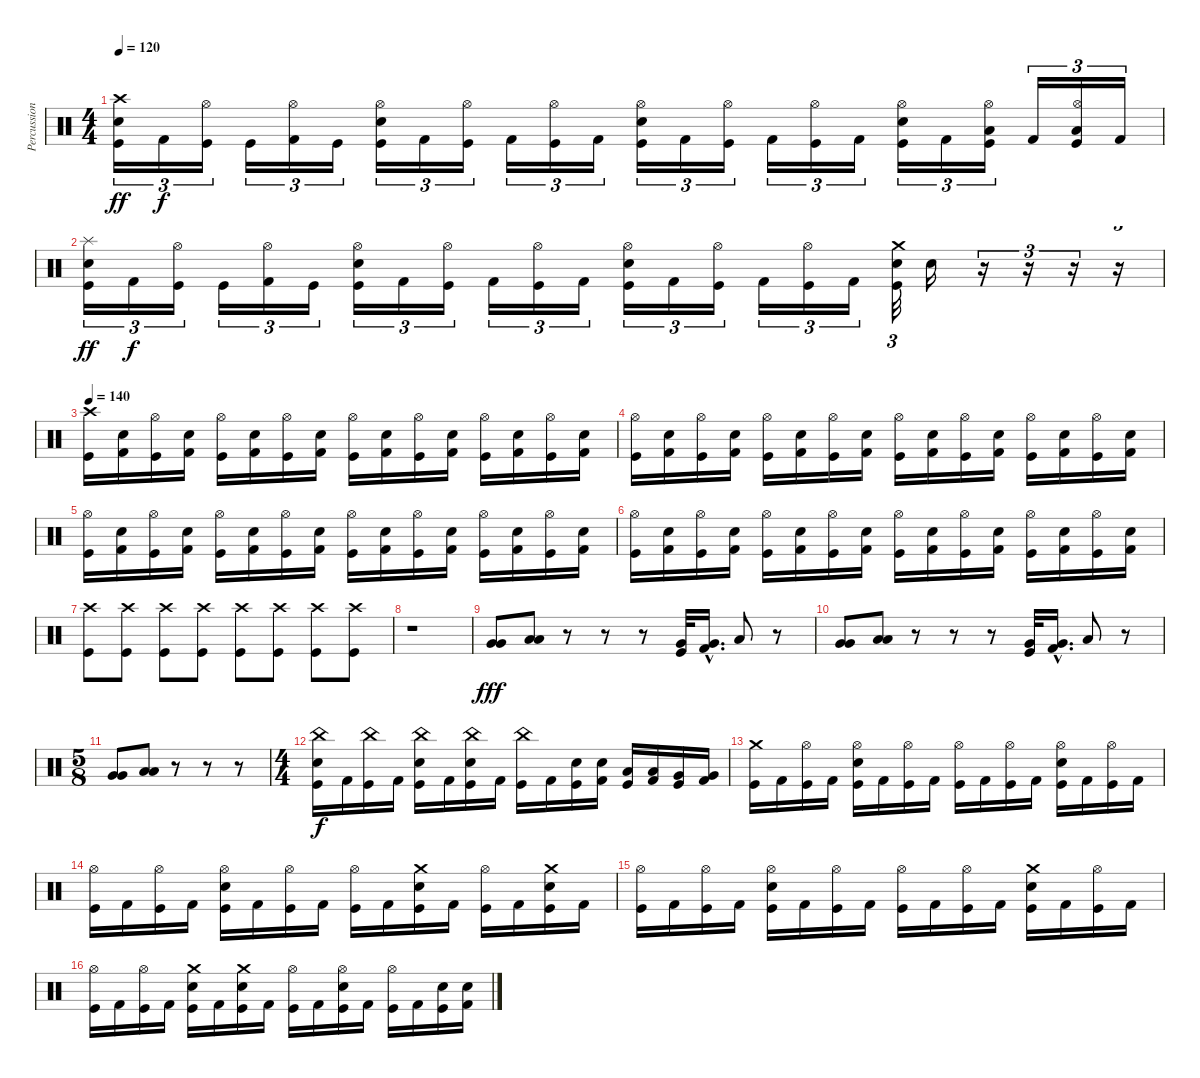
\track ("Percussion" "Percussion") {instrument percussion}
\staff {score}
\articulation defaults
\ts (4 4)
\tempo 120
\clef neutral
\ks c
("Crash high (hit)" "Electric Snare (hit)" "Kick (hit)").16{tu (3 2) dy ff} "Kick (hit) 2".16{tu (3 2) dy f} ("Hi-Hat (open)" "Kick (hit)").16{tu (3 2)} "Kick (hit)".16{tu (3 2)} ("Hi-Hat (open)" "Kick (hit) 2").16{tu (3 2)} "Kick (hit)".16{tu (3 2)} ("Hi-Hat (open)" "Electric Snare (hit)" "Kick (hit)").16{tu (3 2)} "Kick (hit) 2".16{tu (3 2)} ("Hi-Hat (open)" "Kick (hit)").16{tu (3 2)} "Kick (hit) 2".16{tu (3 2)} ("Hi-Hat (open)" "Kick (hit)").16{tu (3 2)} "Kick (hit) 2".16{tu (3 2)} ("Hi-Hat (open)" "Electric Snare (hit)" "Kick (hit)").16{tu (3 2)} "Kick (hit) 2".16{tu (3 2)} ("Hi-Hat (open)" "Kick (hit)").16{tu (3 2)} "Kick (hit) 2".16{tu (3 2)} ("Hi-Hat (open)" "Kick (hit)").16{tu (3 2)} "Kick (hit) 2".16{tu (3 2)} ("Hi-Hat (open)" "Electric Snare (hit)" "Kick (hit)").16{tu (3 2)} "Kick (hit) 2".16{tu (3 2)} ("Hi-Hat (open)" "Low Floor Tom (hit)" "Kick (hit)").16{tu (3 2)} "Kick (hit) 2".16{tu (3 2)} ("Hi-Hat (open)" "Low Floor Tom (hit)" "Kick (hit)").16{tu (3 2)} "Kick (hit) 2".16{tu (3 2)} |
("Splash (hit)" "Electric Snare (hit)" "Kick (hit)").16{tu (3 2) dy ff} "Kick (hit) 2".16{tu (3 2) dy f} ("Hi-Hat (open)" "Kick (hit)").16{tu (3 2)} "Kick (hit)".16{tu (3 2)} ("Hi-Hat (open)" "Kick (hit) 2").16{tu (3 2)} "Kick (hit)".16{tu (3 2)} ("Hi-Hat (open)" "Electric Snare (hit)" "Kick (hit)").16{tu (3 2)} "Kick (hit) 2".16{tu (3 2)} ("Hi-Hat (open)" "Kick (hit)").16{tu (3 2)} "Kick (hit) 2".16{tu (3 2)} ("Hi-Hat (open)" "Kick (hit)").16{tu (3 2)} "Kick (hit) 2".16{tu (3 2)} ("Hi-Hat (open)" "Electric Snare (hit)" "Kick (hit)").16{tu (3 2)} "Kick (hit) 2".16{tu (3 2)} ("Hi-Hat (open)" "Kick (hit)").16{tu (3 2)} "Kick (hit) 2".16{tu (3 2)} ("Hi-Hat (open)" "Kick (hit)").16{tu (3 2)} "Kick (hit) 2".16{tu (3 2)} ("Crash medium (hit)" "Electric Snare (hit)" "Kick (hit)").32{tu (3 2)} "Electric Snare (hit)".16 r.16{tu (3 2)} r.16{tu (3 2)} r.16{tu (3 2)} r.16{tu (3 2)} |
\tempo 140
("Crash high (hit)" "Kick (hit)").16 ("Electric Snare (hit)" "Kick (hit) 2").16 ("Hi-Hat (open)" "Kick (hit)").16 ("Electric Snare (hit)" "Kick (hit) 2").16 ("Hi-Hat (open)" "Kick (hit)").16 ("Electric Snare (hit)" "Kick (hit) 2").16 ("Hi-Hat (open)" "Kick (hit)").16 ("Electric Snare (hit)" "Kick (hit) 2").16 ("Hi-Hat (open)" "Kick (hit)").16 ("Electric Snare (hit)" "Kick (hit) 2").16 ("Hi-Hat (open)" "Kick (hit)").16 ("Electric Snare (hit)" "Kick (hit) 2").16 ("Hi-Hat (open)" "Kick (hit)").16 ("Electric Snare (hit)" "Kick (hit) 2").16 ("Hi-Hat (open)" "Kick (hit)").16 ("Electric Snare (hit)" "Kick (hit) 2").16 |
("Hi-Hat (open)" "Kick (hit)").16 ("Electric Snare (hit)" "Kick (hit) 2").16 ("Hi-Hat (open)" "Kick (hit)").16 ("Electric Snare (hit)" "Kick (hit) 2").16 ("Hi-Hat (open)" "Kick (hit)").16 ("Electric Snare (hit)" "Kick (hit) 2").16 ("Hi-Hat (open)" "Kick (hit)").16 ("Electric Snare (hit)" "Kick (hit) 2").16 ("Hi-Hat (open)" "Kick (hit)").16 ("Electric Snare (hit)" "Kick (hit) 2").16 ("Hi-Hat (open)" "Kick (hit)").16 ("Electric Snare (hit)" "Kick (hit) 2").16 ("Hi-Hat (open)" "Kick (hit)").16 ("Electric Snare (hit)" "Kick (hit) 2").16 ("Hi-Hat (open)" "Kick (hit)").16 ("Electric Snare (hit)" "Kick (hit) 2").16 |
("Hi-Hat (open)" "Kick (hit)").16 ("Electric Snare (hit)" "Kick (hit) 2").16 ("Hi-Hat (open)" "Kick (hit)").16 ("Electric Snare (hit)" "Kick (hit) 2").16 ("Hi-Hat (open)" "Kick (hit)").16 ("Electric Snare (hit)" "Kick (hit) 2").16 ("Hi-Hat (open)" "Kick (hit)").16 ("Electric Snare (hit)" "Kick (hit) 2").16 ("Hi-Hat (open)" "Kick (hit)").16 ("Electric Snare (hit)" "Kick (hit) 2").16 ("Hi-Hat (open)" "Kick (hit)").16 ("Electric Snare (hit)" "Kick (hit) 2").16 ("Hi-Hat (open)" "Kick (hit)").16 ("Electric Snare (hit)" "Kick (hit) 2").16 ("Hi-Hat (open)" "Kick (hit)").16 ("Electric Snare (hit)" "Kick (hit) 2").16 |
("Hi-Hat (open)" "Kick (hit)").16 ("Electric Snare (hit)" "Kick (hit) 2").16 ("Hi-Hat (open)" "Kick (hit)").16 ("Electric Snare (hit)" "Kick (hit) 2").16 ("Hi-Hat (open)" "Kick (hit)").16 ("Electric Snare (hit)" "Kick (hit) 2").16 ("Hi-Hat (open)" "Kick (hit)").16 ("Electric Snare (hit)" "Kick (hit) 2").16 ("Hi-Hat (open)" "Kick (hit)").16 ("Electric Snare (hit)" "Kick (hit) 2").16 ("Hi-Hat (open)" "Kick (hit)").16 ("Electric Snare (hit)" "Kick (hit) 2").16 ("Hi-Hat (open)" "Kick (hit)").16 ("Electric Snare (hit)" "Kick (hit) 2").16 ("Hi-Hat (open)" "Kick (hit)").16 ("Electric Snare (hit)" "Kick (hit) 2").16 |
("Crash high (hit)" "Kick (hit)").8 ("Crash high (hit)" "Kick (hit)").8 ("Crash high (hit)" "Kick (hit)").8 ("Crash high (hit)" "Kick (hit)").8 ("Crash high (hit)" "Kick (hit)").8 ("Crash high (hit)" "Kick (hit)").8 ("Crash high (hit)" "Kick (hit)").8 ("Crash high (hit)" "Kick (hit)").8 |
r.1 |
("Very Low Tom (hit)" "Very Low Tom (hit)").8{dy fff} ("Low Floor Tom (hit)" "Low Floor Tom (hit)").8 r.8 r.8 r.8 ("Very Low Tom (hit)" "Kick (hit)").32 ("Very Low Tom (hit)"{hac} "Kick (hit) 2"{hac}).16{d} "Low Floor Tom (hit)".8 r.8 |
("Very Low Tom (hit)" "Very Low Tom (hit)").8 ("Low Floor Tom (hit)" "Low Floor Tom (hit)").8 r.8 r.8 r.8 ("Very Low Tom (hit)" "Kick (hit)").32 ("Very Low Tom (hit)"{hac} "Kick (hit) 2"{hac}).16{d} "Low Floor Tom (hit)".8 r.8 |
\ts (5 8)
("Very Low Tom (hit)" "Very Low Tom (hit)").8 ("Low Floor Tom (hit)" "Low Floor Tom (hit)").8 r.8 r.8 r.8 |
\ts (4 4)
("China (hit)" "Electric Snare (hit)" "Kick (hit)").16{dy f} "Kick (hit) 2".16 ("China (hit)" "Kick (hit)").16 "Kick (hit) 2".16 ("China (hit)" "Electric Snare (hit)" "Kick (hit)").16 "Kick (hit) 2".16 ("China (hit)" "Electric Snare (hit)" "Kick (hit)").16 "Kick (hit) 2".16 ("China (hit)" "Kick (hit)").16 "Kick (hit) 2".16 ("Electric Snare (hit)" "Kick (hit)").16 ("Electric Snare (hit)" "Kick (hit) 2").16 ("Low Tom (hit)" "Kick (hit)").16 ("Low Tom (hit)" "Kick (hit) 2").16 ("Very Low Tom (hit)" "Kick (hit)").16 ("Very Low Tom (hit)" "Kick (hit) 2").16 |
("Crash medium (hit)" "Kick (hit)").16 "Kick (hit) 2".16 ("Hi-Hat (open)" "Kick (hit)").16 "Kick (hit) 2".16 ("Hi-Hat (open)" "Electric Snare (hit)" "Kick (hit)").16 "Kick (hit) 2".16 ("Hi-Hat (open)" "Kick (hit)").16 "Kick (hit) 2".16 ("Hi-Hat (open)" "Kick (hit)").16 "Kick (hit) 2".16 ("Hi-Hat (open)" "Kick (hit)").16 "Kick (hit) 2".16 ("Hi-Hat (open)" "Electric Snare (hit)" "Kick (hit)").16 "Kick (hit) 2".16 ("Hi-Hat (open)" "Kick (hit)").16 "Kick (hit) 2".16 |
("Hi-Hat (open)" "Kick (hit)").16 "Kick (hit) 2".16 ("Hi-Hat (open)" "Kick (hit)").16 "Kick (hit) 2".16 ("Hi-Hat (open)" "Electric Snare (hit)" "Kick (hit)").16 "Kick (hit) 2".16 ("Hi-Hat (open)" "Kick (hit)").16 "Kick (hit) 2".16 ("Hi-Hat (open)" "Kick (hit)").16 "Kick (hit) 2".16 ("Crash medium (hit)" "Electric Snare (hit)" "Kick (hit)").16 "Kick (hit) 2".16 ("Hi-Hat (open)" "Kick (hit)").16 "Kick (hit) 2".16 ("Crash medium (hit)" "Electric Snare (hit)" "Kick (hit)").16 "Kick (hit) 2".16 |
("Hi-Hat (open)" "Kick (hit)").16 "Kick (hit) 2".16 ("Hi-Hat (open)" "Kick (hit)").16 "Kick (hit) 2".16 ("Hi-Hat (open)" "Electric Snare (hit)" "Kick (hit)").16 "Kick (hit) 2".16 ("Hi-Hat (open)" "Kick (hit)").16 "Kick (hit) 2".16 ("Hi-Hat (open)" "Kick (hit)").16 "Kick (hit) 2".16 ("Hi-Hat (open)" "Kick (hit)").16 "Kick (hit) 2".16 ("Crash medium (hit)" "Electric Snare (hit)" "Kick (hit)").16 "Kick (hit) 2".16 ("Hi-Hat (open)" "Kick (hit)").16 "Kick (hit) 2".16 |
("Hi-Hat (open)" "Kick (hit)").16 "Kick (hit) 2".16 ("Hi-Hat (open)" "Kick (hit)").16 "Kick (hit) 2".16 ("Crash medium (hit)" "Electric Snare (hit)" "Kick (hit)").16 "Kick (hit) 2".16 ("Crash medium (hit)" "Electric Snare (hit)" "Kick (hit)").16 "Kick (hit) 2".16 ("Hi-Hat (open)" "Kick (hit)").16 "Kick (hit) 2".16 ("Hi-Hat (open)" "Electric Snare (hit)" "Kick (hit)").16 "Kick (hit) 2".16 ("Hi-Hat (open)" "Kick (hit)").16 "Kick (hit) 2".16 ("Electric Snare (hit)" "Kick (hit)").16 ("Electric Snare (hit)" "Kick (hit) 2").16
